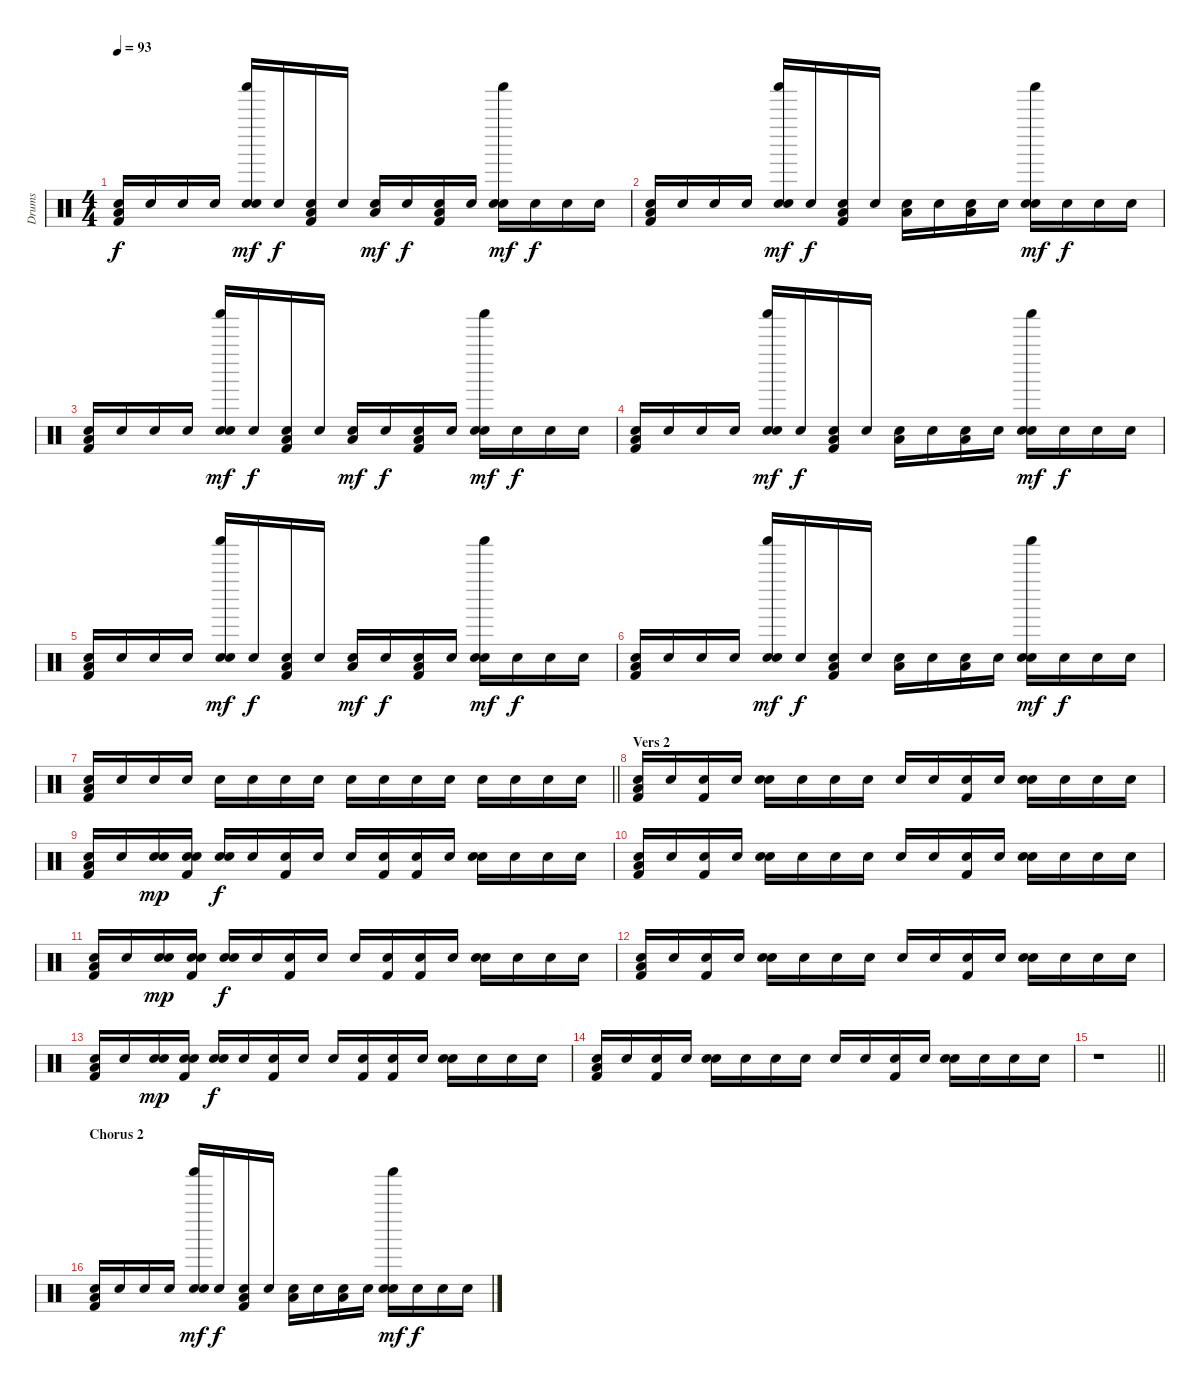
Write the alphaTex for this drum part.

\track ("Drums" "Drums") {instrument percussion}
\staff {score}
\articulation defaults
\ts (4 4)
\tempo 93
\clef neutral
\ks c
("Snare (hit)" "Low Tom (hit)" "Kick (hit) 2").16{dy f} "Snare (hit)".16 "Snare (hit)".16 "Snare (hit)".16 ("Snare (hit)" "Shaker (hit)" "Electric Snare (hit)").16{dy mf} "Snare (hit)".16{dy f} ("Snare (hit)" "Low Tom (hit)" "Kick (hit) 2").16 "Snare (hit)".16 ("Snare (hit)" "Low Tom (hit)").16{dy mf} "Snare (hit)".16{dy f} ("Snare (hit)" "Low Tom (hit)" "Kick (hit) 2").16 "Snare (hit)".16 ("Snare (hit)" "Shaker (hit)" "Electric Snare (hit)").16{dy mf} "Snare (hit)".16{dy f} "Snare (hit)".16 "Snare (hit)".16 |
("Snare (hit)" "Low Tom (hit)" "Kick (hit) 2").16 "Snare (hit)".16 "Snare (hit)".16 "Snare (hit)".16 ("Snare (hit)" "Shaker (hit)" "Electric Snare (hit)").16{dy mf} "Snare (hit)".16{dy f} ("Snare (hit)" "Low Tom (hit)" "Kick (hit) 2").16 "Snare (hit)".16 ("Snare (hit)" "Low Tom (hit)").16 "Snare (hit)".16 ("Snare (hit)" "Low Tom (hit)").16 "Snare (hit)".16 ("Snare (hit)" "Shaker (hit)" "Electric Snare (hit)").16{dy mf} "Snare (hit)".16{dy f} "Snare (hit)".16 "Snare (hit)".16 |
("Snare (hit)" "Low Tom (hit)" "Kick (hit) 2").16 "Snare (hit)".16 "Snare (hit)".16 "Snare (hit)".16 ("Snare (hit)" "Shaker (hit)" "Electric Snare (hit)").16{dy mf} "Snare (hit)".16{dy f} ("Snare (hit)" "Low Tom (hit)" "Kick (hit) 2").16 "Snare (hit)".16 ("Snare (hit)" "Low Tom (hit)").16{dy mf} "Snare (hit)".16{dy f} ("Snare (hit)" "Low Tom (hit)" "Kick (hit) 2").16 "Snare (hit)".16 ("Snare (hit)" "Shaker (hit)" "Electric Snare (hit)").16{dy mf} "Snare (hit)".16{dy f} "Snare (hit)".16 "Snare (hit)".16 |
("Snare (hit)" "Low Tom (hit)" "Kick (hit) 2").16 "Snare (hit)".16 "Snare (hit)".16 "Snare (hit)".16 ("Snare (hit)" "Shaker (hit)" "Electric Snare (hit)").16{dy mf} "Snare (hit)".16{dy f} ("Snare (hit)" "Low Tom (hit)" "Kick (hit) 2").16 "Snare (hit)".16 ("Snare (hit)" "Low Tom (hit)").16 "Snare (hit)".16 ("Snare (hit)" "Low Tom (hit)").16 "Snare (hit)".16 ("Snare (hit)" "Shaker (hit)" "Electric Snare (hit)").16{dy mf} "Snare (hit)".16{dy f} "Snare (hit)".16 "Snare (hit)".16 |
("Snare (hit)" "Low Tom (hit)" "Kick (hit) 2").16 "Snare (hit)".16 "Snare (hit)".16 "Snare (hit)".16 ("Snare (hit)" "Shaker (hit)" "Electric Snare (hit)").16{dy mf} "Snare (hit)".16{dy f} ("Snare (hit)" "Low Tom (hit)" "Kick (hit) 2").16 "Snare (hit)".16 ("Snare (hit)" "Low Tom (hit)").16{dy mf} "Snare (hit)".16{dy f} ("Snare (hit)" "Low Tom (hit)" "Kick (hit) 2").16 "Snare (hit)".16 ("Snare (hit)" "Shaker (hit)" "Electric Snare (hit)").16{dy mf} "Snare (hit)".16{dy f} "Snare (hit)".16 "Snare (hit)".16 |
("Snare (hit)" "Low Tom (hit)" "Kick (hit) 2").16 "Snare (hit)".16 "Snare (hit)".16 "Snare (hit)".16 ("Snare (hit)" "Shaker (hit)" "Electric Snare (hit)").16{dy mf} "Snare (hit)".16{dy f} ("Snare (hit)" "Low Tom (hit)" "Kick (hit) 2").16 "Snare (hit)".16 ("Snare (hit)" "Low Tom (hit)").16 "Snare (hit)".16 ("Snare (hit)" "Low Tom (hit)").16 "Snare (hit)".16 ("Snare (hit)" "Shaker (hit)" "Electric Snare (hit)").16{dy mf} "Snare (hit)".16{dy f} "Snare (hit)".16 "Snare (hit)".16 |
\barLineRight lightlight
("Snare (hit)" "Low Tom (hit)" "Kick (hit) 2").16 "Snare (hit)".16 "Snare (hit)".16 "Snare (hit)".16 "Snare (hit)".16 "Snare (hit)".16 "Snare (hit)".16 "Snare (hit)".16 "Snare (hit)".16 "Snare (hit)".16 "Snare (hit)".16 "Snare (hit)".16 "Snare (hit)".16 "Snare (hit)".16 "Snare (hit)".16 "Snare (hit)".16 |
\section ("" "Vers 2")
("Snare (hit)" "Low Tom (hit)" "Kick (hit) 2").16 "Snare (hit)".16 ("Snare (hit)" "Kick (hit) 2").16 "Snare (hit)".16 ("Snare (hit)" "Electric Snare (hit)").16 "Snare (hit)".16 "Snare (hit)".16 "Snare (hit)".16 "Snare (hit)".16 "Snare (hit)".16 ("Snare (hit)" "Kick (hit) 2").16 "Snare (hit)".16 ("Snare (hit)" "Electric Snare (hit)").16 "Snare (hit)".16 "Snare (hit)".16 "Snare (hit)".16 |
("Snare (hit)" "Low Tom (hit)" "Kick (hit) 2").16 "Snare (hit)".16 ("Snare (hit)" "Electric Snare (hit)").16{dy mp} ("Snare (hit)" "Electric Snare (hit)" "Kick (hit) 2").16 ("Snare (hit)" "Electric Snare (hit)").16{dy f} "Snare (hit)".16 ("Snare (hit)" "Kick (hit) 2").16 "Snare (hit)".16 "Snare (hit)".16 ("Snare (hit)" "Kick (hit) 2").16 ("Snare (hit)" "Kick (hit) 2").16 "Snare (hit)".16 ("Snare (hit)" "Electric Snare (hit)").16 "Snare (hit)".16 "Snare (hit)".16 "Snare (hit)".16 |
("Snare (hit)" "Low Tom (hit)" "Kick (hit) 2").16 "Snare (hit)".16 ("Snare (hit)" "Kick (hit) 2").16 "Snare (hit)".16 ("Snare (hit)" "Electric Snare (hit)").16 "Snare (hit)".16 "Snare (hit)".16 "Snare (hit)".16 "Snare (hit)".16 "Snare (hit)".16 ("Snare (hit)" "Kick (hit) 2").16 "Snare (hit)".16 ("Snare (hit)" "Electric Snare (hit)").16 "Snare (hit)".16 "Snare (hit)".16 "Snare (hit)".16 |
("Snare (hit)" "Low Tom (hit)" "Kick (hit) 2").16 "Snare (hit)".16 ("Snare (hit)" "Electric Snare (hit)").16{dy mp} ("Snare (hit)" "Electric Snare (hit)" "Kick (hit) 2").16 ("Snare (hit)" "Electric Snare (hit)").16{dy f} "Snare (hit)".16 ("Snare (hit)" "Kick (hit) 2").16 "Snare (hit)".16 "Snare (hit)".16 ("Snare (hit)" "Kick (hit) 2").16 ("Snare (hit)" "Kick (hit) 2").16 "Snare (hit)".16 ("Snare (hit)" "Electric Snare (hit)").16 "Snare (hit)".16 "Snare (hit)".16 "Snare (hit)".16 |
("Snare (hit)" "Low Tom (hit)" "Kick (hit) 2").16 "Snare (hit)".16 ("Snare (hit)" "Kick (hit) 2").16 "Snare (hit)".16 ("Snare (hit)" "Electric Snare (hit)").16 "Snare (hit)".16 "Snare (hit)".16 "Snare (hit)".16 "Snare (hit)".16 "Snare (hit)".16 ("Snare (hit)" "Kick (hit) 2").16 "Snare (hit)".16 ("Snare (hit)" "Electric Snare (hit)").16 "Snare (hit)".16 "Snare (hit)".16 "Snare (hit)".16 |
("Snare (hit)" "Low Tom (hit)" "Kick (hit) 2").16 "Snare (hit)".16 ("Snare (hit)" "Electric Snare (hit)").16{dy mp} ("Snare (hit)" "Electric Snare (hit)" "Kick (hit) 2").16 ("Snare (hit)" "Electric Snare (hit)").16{dy f} "Snare (hit)".16 ("Snare (hit)" "Kick (hit) 2").16 "Snare (hit)".16 "Snare (hit)".16 ("Snare (hit)" "Kick (hit) 2").16 ("Snare (hit)" "Kick (hit) 2").16 "Snare (hit)".16 ("Snare (hit)" "Electric Snare (hit)").16 "Snare (hit)".16 "Snare (hit)".16 "Snare (hit)".16 |
("Snare (hit)" "Low Tom (hit)" "Kick (hit) 2").16 "Snare (hit)".16 ("Snare (hit)" "Kick (hit) 2").16 "Snare (hit)".16 ("Snare (hit)" "Electric Snare (hit)").16 "Snare (hit)".16 "Snare (hit)".16 "Snare (hit)".16 "Snare (hit)".16 "Snare (hit)".16 ("Snare (hit)" "Kick (hit) 2").16 "Snare (hit)".16 ("Snare (hit)" "Electric Snare (hit)").16 "Snare (hit)".16 "Snare (hit)".16 "Snare (hit)".16 |
\barLineRight lightlight
r.1 |
\section ("" "Chorus 2")
("Snare (hit)" "Low Tom (hit)" "Kick (hit) 2").16 "Snare (hit)".16 "Snare (hit)".16 "Snare (hit)".16 ("Snare (hit)" "Shaker (hit)" "Electric Snare (hit)").16{dy mf} "Snare (hit)".16{dy f} ("Snare (hit)" "Low Tom (hit)" "Kick (hit) 2").16 "Snare (hit)".16 ("Snare (hit)" "Low Tom (hit)").16 "Snare (hit)".16 ("Snare (hit)" "Low Tom (hit)").16 "Snare (hit)".16 ("Snare (hit)" "Shaker (hit)" "Electric Snare (hit)").16{dy mf} "Snare (hit)".16{dy f} "Snare (hit)".16 "Snare (hit)".16
